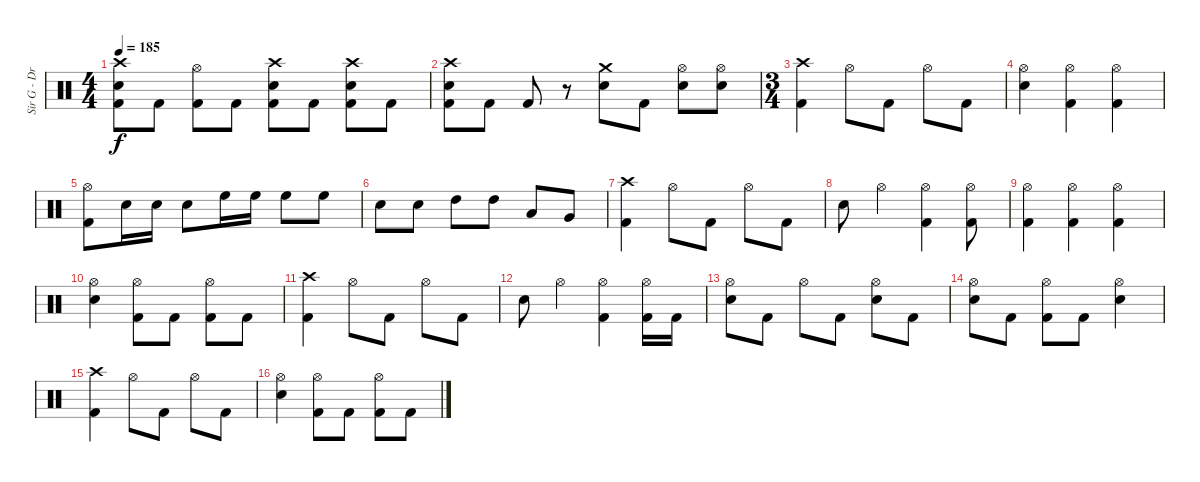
\track ("Sir G - Drums" "Sir G - Dr") {instrument percussion}
\staff {score}
\articulation defaults
\ts (4 4)
\tempo 185
\clef neutral
\ks c
("Kick (hit) 2" "Electric Snare (hit)" "Crash high (hit)").8{dy f} "Kick (hit) 2".8 ("Kick (hit) 2" "Hi-Hat (open)").8 "Kick (hit) 2".8 ("Kick (hit) 2" "Electric Snare (hit)" "Crash high (hit)").8 "Kick (hit) 2".8 ("Kick (hit) 2" "Electric Snare (hit)" "Crash high (hit)").8 "Kick (hit) 2".8 |
("Kick (hit) 2" "Electric Snare (hit)" "Crash high (hit)").8 "Kick (hit) 2".8 "Kick (hit) 2".8 r.8 ("Electric Snare (hit)" "Crash medium (hit)").8 "Kick (hit) 2".8 ("Electric Snare (hit)" "Hi-Hat (open)").8 ("Electric Snare (hit)" "Hi-Hat (open)").8 |
\ts (3 4)
("Kick (hit) 2" "Crash high (hit)").4 "Hi-Hat (open)".8 "Kick (hit) 2".8 "Hi-Hat (open)".8 "Kick (hit) 2".8 |
("Electric Snare (hit)" "Hi-Hat (open)").4 ("Kick (hit) 2" "Hi-Hat (open)").4 ("Kick (hit) 2" "Hi-Hat (open)").4 |
("Kick (hit) 2" "Hi-Hat (open)").8 "Electric Snare (hit)".16 "Electric Snare (hit)".16 "Electric Snare (hit)".8 "High Floor Tom (hit)".16 "High Floor Tom (hit)".16 "High Floor Tom (hit)".8 "High Floor Tom (hit)".8 |
"Electric Snare (hit)".8 "Electric Snare (hit)".8 "High Tom (hit)".8 "High Tom (hit)".8 "Low Tom (hit)".8 "Very Low Tom (hit)".8 |
("Kick (hit) 2" "Crash high (hit)").4 "Hi-Hat (open)".8 "Kick (hit) 2".8 "Hi-Hat (open)".8 "Kick (hit) 2".8 |
"Electric Snare (hit)".8 "Hi-Hat (open)".4 ("Kick (hit) 2" "Hi-Hat (open)").4 ("Kick (hit) 2" "Hi-Hat (open)").8 |
("Kick (hit) 2" "Hi-Hat (open)").4 ("Kick (hit) 2" "Hi-Hat (open)").4 ("Kick (hit) 2" "Hi-Hat (open)").4 |
("Electric Snare (hit)" "Hi-Hat (open)").4 ("Kick (hit) 2" "Hi-Hat (open)").8 "Kick (hit) 2".8 ("Kick (hit) 2" "Hi-Hat (open)").8 "Kick (hit) 2".8 |
("Kick (hit) 2" "Crash high (hit)").4 "Hi-Hat (open)".8 "Kick (hit) 2".8 "Hi-Hat (open)".8 "Kick (hit) 2".8 |
"Electric Snare (hit)".8 "Hi-Hat (open)".4 ("Kick (hit) 2" "Hi-Hat (open)").4 ("Kick (hit) 2" "Hi-Hat (open)").16 "Kick (hit) 2".16 |
("Electric Snare (hit)" "Hi-Hat (open)").8 "Kick (hit) 2".8 "Hi-Hat (open)".8 "Kick (hit) 2".8 ("Electric Snare (hit)" "Hi-Hat (open)").8 "Kick (hit) 2".8 |
("Electric Snare (hit)" "Hi-Hat (open)").8 "Kick (hit) 2".8 ("Kick (hit) 2" "Hi-Hat (open)").8 "Kick (hit) 2".8 ("Electric Snare (hit)" "Hi-Hat (open)").4 |
("Kick (hit) 2" "Crash high (hit)").4 "Hi-Hat (open)".8 "Kick (hit) 2".8 "Hi-Hat (open)".8 "Kick (hit) 2".8 |
("Electric Snare (hit)" "Hi-Hat (open)").4 ("Kick (hit) 2" "Hi-Hat (open)").8 "Kick (hit) 2".8 ("Kick (hit) 2" "Hi-Hat (open)").8 "Kick (hit) 2".8
